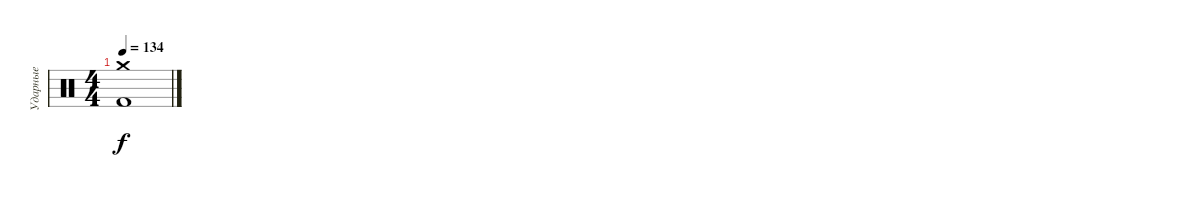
\track ("Ударные" "Ударные") {instrument percussion}
\staff {score}
\articulation defaults
\ts (4 4)
\tempo 134
\clef neutral
\ks c
("Kick (hit) 2" "Crash medium (hit)").1{dy f}
